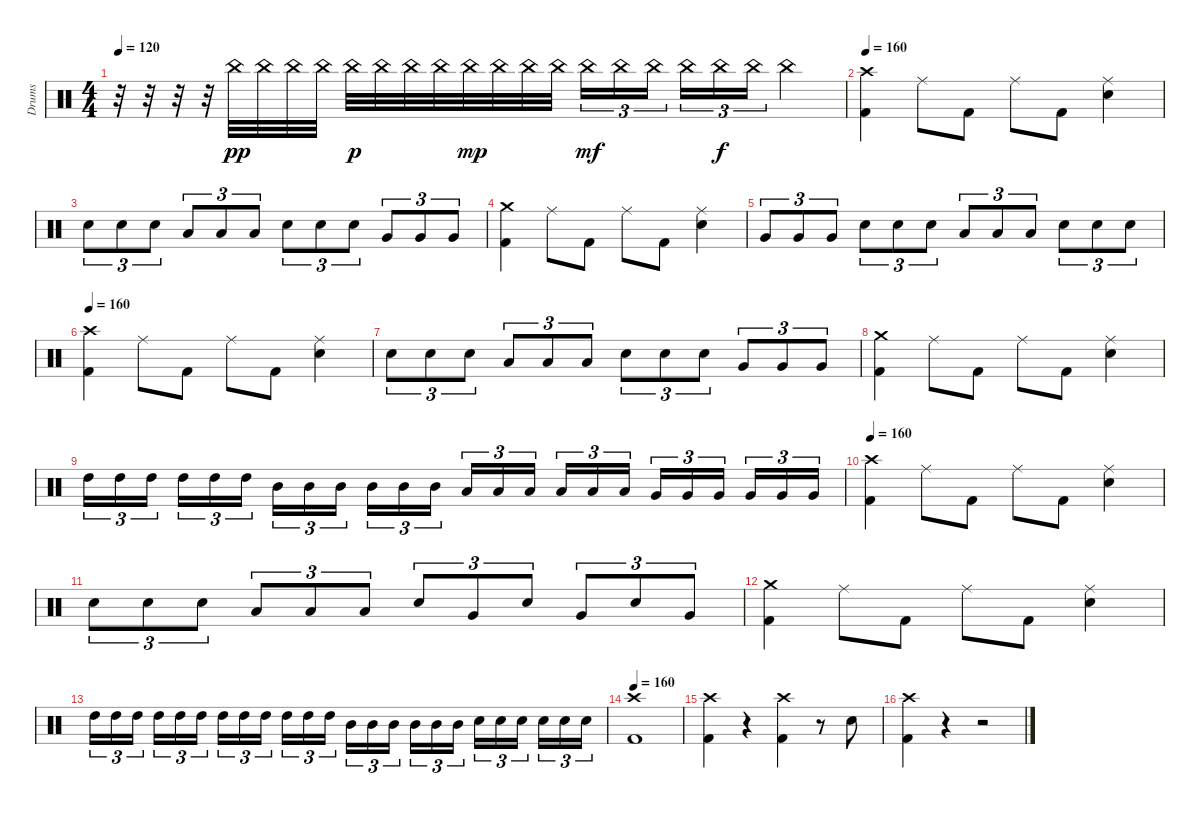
\track ("Drums" "Drums") {instrument percussion}
\staff {score}
\articulation defaults
\ts (4 4)
\tempo 120
\clef neutral
\ks c
r.32{dy f} r.32 r.32 r.32 "China (hit)".32{dy pp} "China (hit)".32 "China (hit)".32 "China (hit)".32 "China (hit)".32{dy p} "China (hit)".32 "China (hit)".32 "China (hit)".32 "China (hit)".32{dy mp} "China (hit)".32 "China (hit)".32 "China (hit)".32 "China (hit)".16{tu (3 2) dy mf} "China (hit)".16{tu (3 2)} "China (hit)".16{tu (3 2) beam splitsecondary} "China (hit)".16{tu (3 2)} "China (hit)".16{tu (3 2) dy f} "China (hit)".16{tu (3 2)} "China (hit)".4 |
\tempo 160
("Crash high (hit)" "Kick (hit) 2").4 "Ride (middle)".8 "Kick (hit) 2".8 "Ride (middle)".8 "Kick (hit) 2".8 ("Ride (middle)" "Electric Snare (hit)").4 |
"Electric Snare (hit)".8{tu (3 2)} "Electric Snare (hit)".8{tu (3 2)} "Electric Snare (hit)".8{tu (3 2)} "Low Tom (hit)".8{tu (3 2)} "Low Tom (hit)".8{tu (3 2)} "Low Tom (hit)".8{tu (3 2)} "Electric Snare (hit)".8{tu (3 2)} "Electric Snare (hit)".8{tu (3 2)} "Electric Snare (hit)".8{tu (3 2)} "Very Low Tom (hit)".8{tu (3 2)} "Very Low Tom (hit)".8{tu (3 2)} "Very Low Tom (hit)".8{tu (3 2)} |
("Crash medium (hit)" "Kick (hit) 2").4 "Ride (middle)".8 "Kick (hit) 2".8 "Ride (middle)".8 "Kick (hit) 2".8 ("Ride (middle)" "Electric Snare (hit)").4 |
"Very Low Tom (hit)".8{tu (3 2)} "Very Low Tom (hit)".8{tu (3 2)} "Very Low Tom (hit)".8{tu (3 2)} "Electric Snare (hit)".8{tu (3 2)} "Electric Snare (hit)".8{tu (3 2)} "Electric Snare (hit)".8{tu (3 2)} "Low Tom (hit)".8{tu (3 2)} "Low Tom (hit)".8{tu (3 2)} "Low Tom (hit)".8{tu (3 2)} "Electric Snare (hit)".8{tu (3 2)} "Electric Snare (hit)".8{tu (3 2)} "Electric Snare (hit)".8{tu (3 2)} |
\tempo 160
("Crash high (hit)" "Kick (hit) 2").4 "Ride (middle)".8 "Kick (hit) 2".8 "Ride (middle)".8 "Kick (hit) 2".8 ("Ride (middle)" "Electric Snare (hit)").4 |
"Electric Snare (hit)".8{tu (3 2)} "Electric Snare (hit)".8{tu (3 2)} "Electric Snare (hit)".8{tu (3 2)} "Low Tom (hit)".8{tu (3 2)} "Low Tom (hit)".8{tu (3 2)} "Low Tom (hit)".8{tu (3 2)} "Electric Snare (hit)".8{tu (3 2)} "Electric Snare (hit)".8{tu (3 2)} "Electric Snare (hit)".8{tu (3 2)} "Very Low Tom (hit)".8{tu (3 2)} "Very Low Tom (hit)".8{tu (3 2)} "Very Low Tom (hit)".8{tu (3 2)} |
("Crash medium (hit)" "Kick (hit) 2").4 "Ride (middle)".8 "Kick (hit) 2".8 "Ride (middle)".8 "Kick (hit) 2".8 ("Ride (middle)" "Electric Snare (hit)").4 |
"High Tom (hit)".16{tu (3 2)} "High Tom (hit)".16{tu (3 2)} "High Tom (hit)".16{tu (3 2) beam splitsecondary} "High Tom (hit)".16{tu (3 2)} "High Tom (hit)".16{tu (3 2)} "High Tom (hit)".16{tu (3 2)} "Mid Tom (hit)".16{tu (3 2)} "Mid Tom (hit)".16{tu (3 2)} "Mid Tom (hit)".16{tu (3 2) beam splitsecondary} "Mid Tom (hit)".16{tu (3 2)} "Mid Tom (hit)".16{tu (3 2)} "Mid Tom (hit)".16{tu (3 2)} "Low Tom (hit)".16{tu (3 2)} "Low Tom (hit)".16{tu (3 2)} "Low Tom (hit)".16{tu (3 2) beam splitsecondary} "Low Tom (hit)".16{tu (3 2)} "Low Tom (hit)".16{tu (3 2)} "Low Tom (hit)".16{tu (3 2)} "Very Low Tom (hit)".16{tu (3 2)} "Very Low Tom (hit)".16{tu (3 2)} "Very Low Tom (hit)".16{tu (3 2) beam splitsecondary} "Very Low Tom (hit)".16{tu (3 2)} "Very Low Tom (hit)".16{tu (3 2)} "Very Low Tom (hit)".16{tu (3 2)} |
\tempo 160
("Crash high (hit)" "Kick (hit) 2").4 "Ride (middle)".8 "Kick (hit) 2".8 "Ride (middle)".8 "Kick (hit) 2".8 ("Ride (middle)" "Electric Snare (hit)").4 |
"Electric Snare (hit)".8{tu (3 2)} "Electric Snare (hit)".8{tu (3 2)} "Electric Snare (hit)".8{tu (3 2)} "Low Tom (hit)".8{tu (3 2)} "Low Tom (hit)".8{tu (3 2)} "Low Tom (hit)".8{tu (3 2)} "Electric Snare (hit)".8{tu (3 2)} "Very Low Tom (hit)".8{tu (3 2)} "Electric Snare (hit)".8{tu (3 2)} "Very Low Tom (hit)".8{tu (3 2)} "Electric Snare (hit)".8{tu (3 2)} "Very Low Tom (hit)".8{tu (3 2)} |
("Crash medium (hit)" "Kick (hit) 2").4 "Ride (middle)".8 "Kick (hit) 2".8 "Ride (middle)".8 "Kick (hit) 2".8 ("Ride (middle)" "Electric Snare (hit)").4 |
"High Tom (hit)".16{tu (3 2)} "High Tom (hit)".16{tu (3 2)} "High Tom (hit)".16{tu (3 2) beam splitsecondary} "High Tom (hit)".16{tu (3 2)} "High Tom (hit)".16{tu (3 2)} "High Tom (hit)".16{tu (3 2)} "High Tom (hit)".16{tu (3 2)} "High Tom (hit)".16{tu (3 2)} "High Tom (hit)".16{tu (3 2) beam splitsecondary} "High Tom (hit)".16{tu (3 2)} "High Tom (hit)".16{tu (3 2)} "High Tom (hit)".16{tu (3 2)} "Mid Tom (hit)".16{tu (3 2)} "Mid Tom (hit)".16{tu (3 2)} "Mid Tom (hit)".16{tu (3 2) beam splitsecondary} "Mid Tom (hit)".16{tu (3 2)} "Mid Tom (hit)".16{tu (3 2)} "Mid Tom (hit)".16{tu (3 2)} "Electric Snare (hit)".16{tu (3 2)} "Electric Snare (hit)".16{tu (3 2)} "Electric Snare (hit)".16{tu (3 2) beam splitsecondary} "Electric Snare (hit)".16{tu (3 2)} "Electric Snare (hit)".16{tu (3 2)} "Electric Snare (hit)".16{tu (3 2)} |
\tempo 160
("Crash high (hit)" "Kick (hit) 2").1 |
("Crash high (hit)" "Kick (hit) 2").4 r.4 ("Crash high (hit)" "Kick (hit) 2").4 r.8 "Electric Snare (hit)".8 |
("Crash high (hit)" "Kick (hit) 2").4 r.4 r.2
